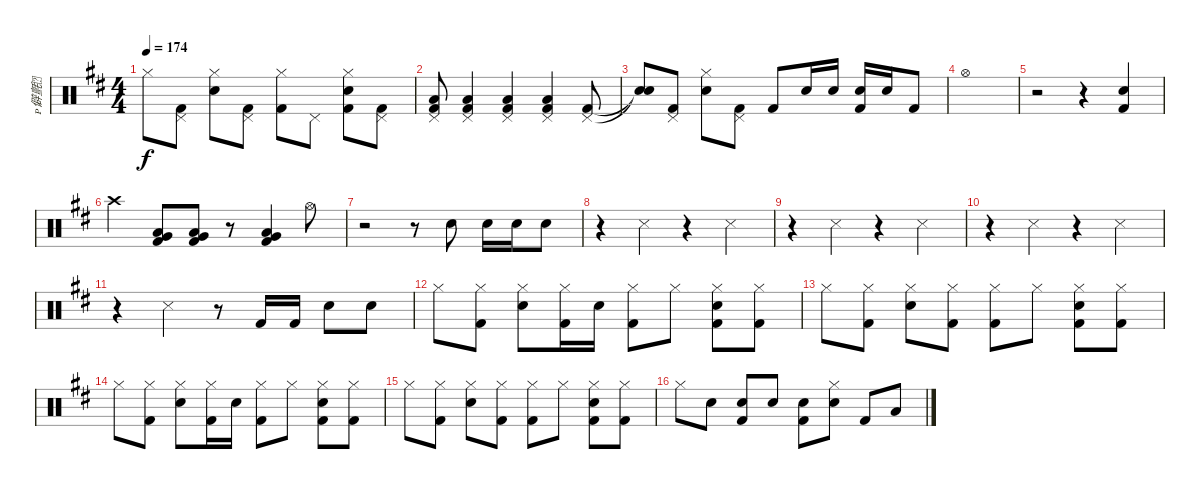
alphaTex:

\track ("僻氈" "僻氈") {instrument percussion}
\staff {score}
\articulation defaults
\ts (4 4)
\tempo 174
\clef neutral
\ks d "Hi-Hat (closed)".8{dy f}
("Pedal Hi-Hat (hit)" "Kick (hit) 2").8 ("Hi-Hat (closed)" "Electric Snare (hit)").8 ("Pedal Hi-Hat (hit)" "Kick (hit) 2").8 ("Hi-Hat (closed)" "Kick (hit) 2").8 "Pedal Hi-Hat (hit)".8 ("Hi-Hat (closed)" "Electric Snare (hit)" "Kick (hit) 2").8 ("Pedal Hi-Hat (hit)" "Kick (hit) 2").8 |
("Pedal Hi-Hat (hit)" "Low Tom (hit)" "Kick (hit) 2").8 ("Pedal Hi-Hat (hit)" "Low Tom (hit)" "Kick (hit) 2").4 ("Pedal Hi-Hat (hit)" "Low Tom (hit)" "Kick (hit) 2").4 ("Pedal Hi-Hat (hit)" "Low Tom (hit)" "Kick (hit) 2").4 ("Pedal Hi-Hat (hit)" "Kick (hit) 2").8 |
("Snare (hit)"{t} "Snare (hit)"{t}).8 ("Pedal Hi-Hat (hit)" "Kick (hit) 2").8 ("Hi-Hat (closed)" "Electric Snare (hit)").8 ("Pedal Hi-Hat (hit)" "Kick (hit) 2").8 "Kick (hit) 2".8 "Electric Snare (hit)".16 "Electric Snare (hit)".16 ("Electric Snare (hit)" "Kick (hit) 2").16 "Electric Snare (hit)".16 "Kick (hit) 2".8 |
"Hi-Hat (open)".1 |
r.2 r.4 ("Electric Snare (hit)" "Kick (hit) 2").4 |
"Crash high (hit)".4 ("Low Tom (hit)" "Very Low Tom (hit)" "Kick (hit) 2").8 ("Low Tom (hit)" "Very Low Tom (hit)" "Kick (hit) 2").8 r.8 ("Low Tom (hit)" "Very Low Tom (hit)" "Kick (hit) 2").4 "Hi-Hat (open)".8 |
r.2 r.8 "Electric Snare (hit)".8 "Electric Snare (hit)".16 "Electric Snare (hit)".16 "Electric Snare (hit)".8 |
r.4 "Metronome (hit)".4 r.4 "Metronome (hit)".4 |
r.4 "Metronome (hit)".4 r.4 "Metronome (hit)".4 |
r.4 "Metronome (hit)".4 r.4 "Metronome (hit)".4 |
r.4 "Metronome (hit)".4 r.8 "Kick (hit) 2".16 "Kick (hit) 2".16 "Electric Snare (hit)".8 "Electric Snare (hit)".8 |
"Hi-Hat (closed)".8 ("Hi-Hat (closed)" "Kick (hit) 2").8 ("Hi-Hat (closed)" "Electric Snare (hit)").8 ("Hi-Hat (closed)" "Kick (hit) 2").16 "Electric Snare (hit)".16 ("Hi-Hat (closed)" "Kick (hit) 2").8 "Hi-Hat (closed)".8 ("Hi-Hat (closed)" "Electric Snare (hit)" "Kick (hit) 2").8 ("Hi-Hat (closed)" "Kick (hit) 2").8 |
"Hi-Hat (closed)".8 ("Hi-Hat (closed)" "Kick (hit) 2").8 ("Hi-Hat (closed)" "Electric Snare (hit)").8 ("Hi-Hat (closed)" "Kick (hit) 2").8 ("Hi-Hat (closed)" "Kick (hit) 2").8 "Hi-Hat (closed)".8 ("Hi-Hat (closed)" "Electric Snare (hit)" "Kick (hit) 2").8 ("Hi-Hat (closed)" "Kick (hit) 2").8 |
"Hi-Hat (closed)".8 ("Hi-Hat (closed)" "Kick (hit) 2").8 ("Hi-Hat (closed)" "Electric Snare (hit)").8 ("Hi-Hat (closed)" "Kick (hit) 2").16 "Electric Snare (hit)".16 ("Hi-Hat (closed)" "Kick (hit) 2").8 "Hi-Hat (closed)".8 ("Hi-Hat (closed)" "Electric Snare (hit)" "Kick (hit) 2").8 ("Hi-Hat (closed)" "Kick (hit) 2").8 |
"Hi-Hat (closed)".8 ("Hi-Hat (closed)" "Kick (hit) 2").8 ("Hi-Hat (closed)" "Electric Snare (hit)").8 ("Hi-Hat (closed)" "Kick (hit) 2").8 ("Hi-Hat (closed)" "Kick (hit) 2").8 "Hi-Hat (closed)".8 ("Hi-Hat (closed)" "Electric Snare (hit)" "Kick (hit) 2").8 ("Hi-Hat (closed)" "Kick (hit) 2").8 |
"Hi-Hat (closed)".8 "Electric Snare (hit)".8 ("Electric Snare (hit)" "Kick (hit) 2").8 "Electric Snare (hit)".8 ("Electric Snare (hit)" "Kick (hit) 2").8 ("Hi-Hat (closed)" "Electric Snare (hit)").8 "Kick (hit) 2".8 "Low Tom (hit)".8
